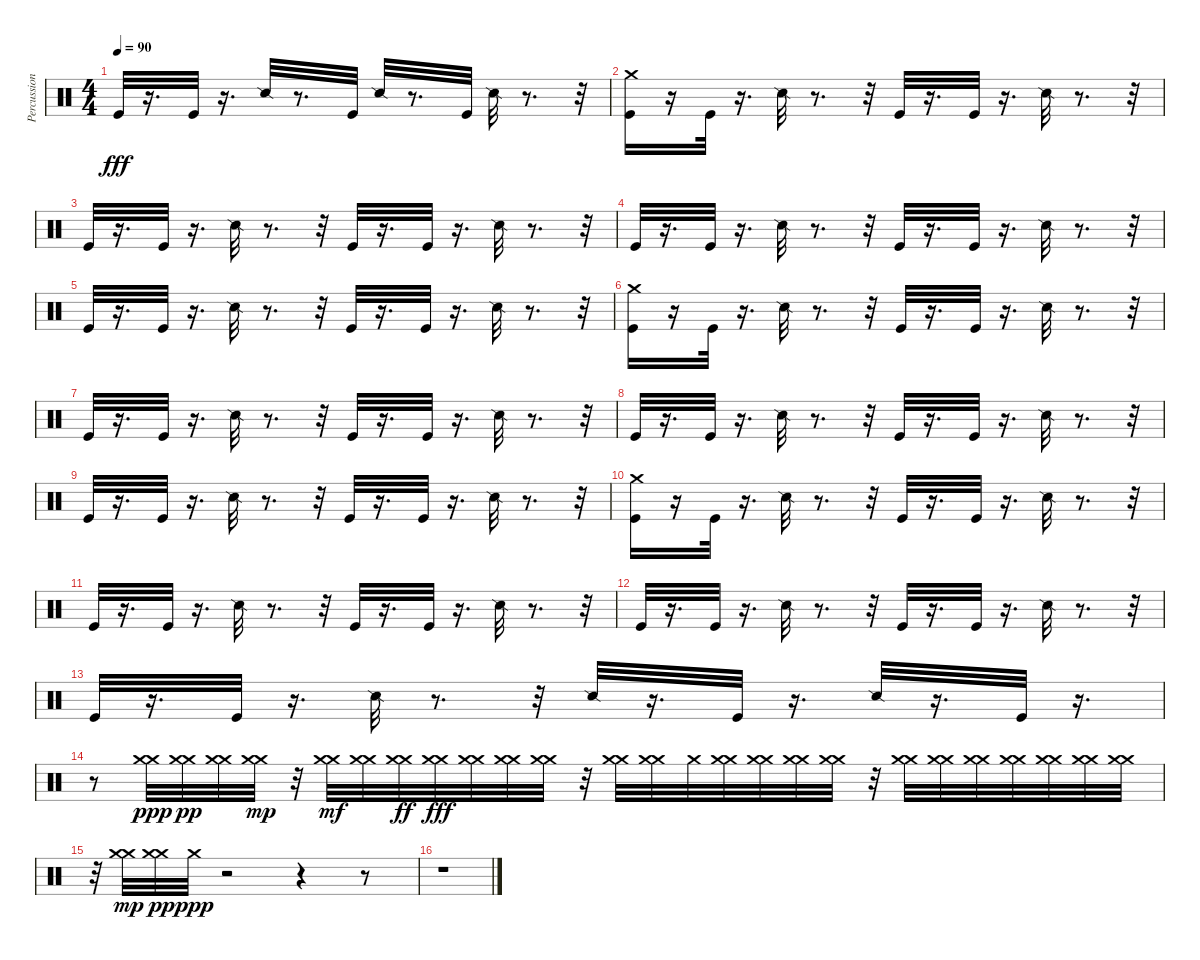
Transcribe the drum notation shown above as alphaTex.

\track ("Percussion" "Percussion") {instrument percussion}
\staff {score}
\articulation defaults
\ts (4 4)
\tempo 90
\clef neutral
\ks c "Kick (hit)".32{dy fff}
r.16{d} "Kick (hit)".32 r.16{d} "Snare (side stick) 2".32 r.8{d} "Kick (hit)".32 "Snare (side stick) 2".32 r.8{d} "Kick (hit)".32 "Snare (side stick) 2".32 r.8{d} r.32 |
("Crash medium (hit)" "Kick (hit)").16 r.16 "Kick (hit)".32 r.16{d} "Snare (side stick) 2".32 r.8{d} r.32 "Kick (hit)".32 r.16{d} "Kick (hit)".32 r.16{d} "Snare (side stick) 2".32 r.8{d} r.32 |
"Kick (hit)".32 r.16{d} "Kick (hit)".32 r.16{d} "Snare (side stick) 2".32 r.8{d} r.32 "Kick (hit)".32 r.16{d} "Kick (hit)".32 r.16{d} "Snare (side stick) 2".32 r.8{d} r.32 |
"Kick (hit)".32 r.16{d} "Kick (hit)".32 r.16{d} "Snare (side stick) 2".32 r.8{d} r.32 "Kick (hit)".32 r.16{d} "Kick (hit)".32 r.16{d} "Snare (side stick) 2".32 r.8{d} r.32 |
"Kick (hit)".32 r.16{d} "Kick (hit)".32 r.16{d} "Snare (side stick) 2".32 r.8{d} r.32 "Kick (hit)".32 r.16{d} "Kick (hit)".32 r.16{d} "Snare (side stick) 2".32 r.8{d} r.32 |
("Kick (hit)" "Crash medium (hit)").16 r.16 "Kick (hit)".32 r.16{d} "Snare (side stick) 2".32 r.8{d} r.32 "Kick (hit)".32 r.16{d} "Kick (hit)".32 r.16{d} "Snare (side stick) 2".32 r.8{d} r.32 |
"Kick (hit)".32 r.16{d} "Kick (hit)".32 r.16{d} "Snare (side stick) 2".32 r.8{d} r.32 "Kick (hit)".32 r.16{d} "Kick (hit)".32 r.16{d} "Snare (side stick) 2".32 r.8{d} r.32 |
"Kick (hit)".32 r.16{d} "Kick (hit)".32 r.16{d} "Snare (side stick) 2".32 r.8{d} r.32 "Kick (hit)".32 r.16{d} "Kick (hit)".32 r.16{d} "Snare (side stick) 2".32 r.8{d} r.32 |
"Kick (hit)".32 r.16{d} "Kick (hit)".32 r.16{d} "Snare (side stick) 2".32 r.8{d} r.32 "Kick (hit)".32 r.16{d} "Kick (hit)".32 r.16{d} "Snare (side stick) 2".32 r.8{d} r.32 |
("Kick (hit)" "Crash medium (hit)").16 r.16 "Kick (hit)".32 r.16{d} "Snare (side stick) 2".32 r.8{d} r.32 "Kick (hit)".32 r.16{d} "Kick (hit)".32 r.16{d} "Snare (side stick) 2".32 r.8{d} r.32 |
"Kick (hit)".32 r.16{d} "Kick (hit)".32 r.16{d} "Snare (side stick) 2".32 r.8{d} r.32 "Kick (hit)".32 r.16{d} "Kick (hit)".32 r.16{d} "Snare (side stick) 2".32 r.8{d} r.32 |
"Kick (hit)".32 r.16{d} "Kick (hit)".32 r.16{d} "Snare (side stick) 2".32 r.8{d} r.32 "Kick (hit)".32 r.16{d} "Kick (hit)".32 r.16{d} "Snare (side stick) 2".32 r.8{d} r.32 |
"Kick (hit)".32 r.16{d} "Kick (hit)".32 r.16{d} "Snare (side stick) 2".32 r.8{d} r.32 "Snare (side stick) 2".32 r.16{d} "Kick (hit)".32 r.16{d} "Snare (side stick) 2".32 r.16{d} "Kick (hit)".32 r.16{d} |
r.8 ("Crash medium (hit)" "Crash medium (hit)").32{dy ppp} ("Crash medium (hit)" "Crash medium (hit)").32{dy pp} ("Crash medium (hit)" "Crash medium (hit)").32 ("Crash medium (hit)" "Crash medium (hit)").32{dy mp} r.32 ("Crash medium (hit)" "Crash medium (hit)").32{dy mf} ("Crash medium (hit)" "Crash medium (hit)").32 ("Crash medium (hit)" "Crash medium (hit)").32{dy ff} ("Crash medium (hit)" "Crash medium (hit)").32{dy fff} ("Crash medium (hit)" "Crash medium (hit)").32 ("Crash medium (hit)" "Crash medium (hit)").32 ("Crash medium (hit)" "Crash medium (hit)").32 r.32 ("Crash medium (hit)" "Crash medium (hit)").32 ("Crash medium (hit)" "Crash medium (hit)").32 "Crash medium (hit)".32 ("Crash medium (hit)" "Crash medium (hit)").32 ("Crash medium (hit)" "Crash medium (hit)").32 ("Crash medium (hit)" "Crash medium (hit)").32 ("Crash medium (hit)" "Crash medium (hit)").32 r.32 ("Crash medium (hit)" "Crash medium (hit)").32 ("Crash medium (hit)" "Crash medium (hit)").32 ("Crash medium (hit)" "Crash medium (hit)").32 ("Crash medium (hit)" "Crash medium (hit)").32 ("Crash medium (hit)" "Crash medium (hit)").32 ("Crash medium (hit)" "Crash medium (hit)").32 ("Crash medium (hit)" "Crash medium (hit)").32 |
r.32 ("Crash medium (hit)" "Crash medium (hit)").32{dy mp} ("Crash medium (hit)" "Crash medium (hit)").32{dy pp} "Crash medium (hit)".32{dy ppp} r.2 r.4 r.8 |
r.1
